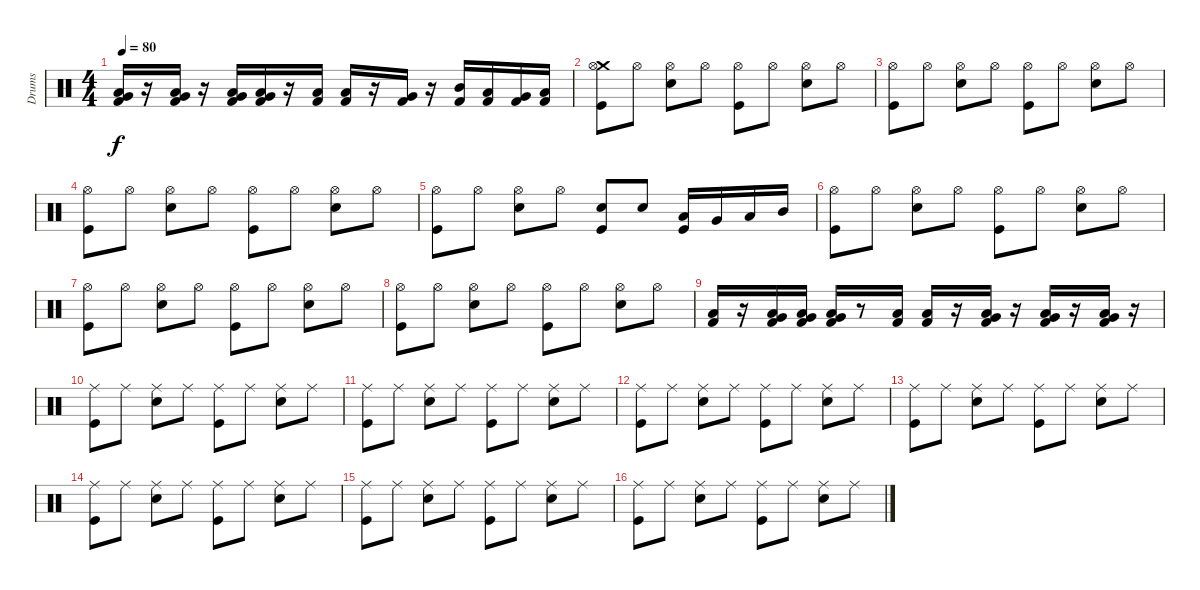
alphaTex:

\track ("Drums" "Drums") {instrument percussion}
\staff {score}
\articulation defaults
\ts (4 4)
\tempo 80
\clef neutral
\ks c
("Very Low Tom (hit)" "Low Floor Tom (hit)" "Kick (hit) 2").16{dy f} r.16 ("Low Tom (hit)" "Very Low Tom (hit)" "Kick (hit) 2").16 r.16 ("Very Low Tom (hit)" "Low Tom (hit)" "Kick (hit) 2").16 ("Low Tom (hit)" "Very Low Tom (hit)" "Kick (hit) 2").16 r.16 ("Low Floor Tom (hit)" "Kick (hit) 2").16 ("Low Floor Tom (hit)" "Kick (hit) 2").16 r.16 ("Very Low Tom (hit)" "Kick (hit) 2").16 r.16 ("Mid Tom (hit)" "Kick (hit) 2").16 ("Low Tom (hit)" "Kick (hit) 2").16 ("Very Low Tom (hit)" "Kick (hit) 2").16 ("Low Floor Tom (hit)" "Kick (hit) 2").16 |
("Crash medium (hit)" "Hi-Hat (open)" "Kick (hit)").8 "Hi-Hat (open)".8 ("Snare (hit) 2" "Hi-Hat (open)").8 "Hi-Hat (open)".8 ("Hi-Hat (open)" "Kick (hit)").8 "Hi-Hat (open)".8 ("Snare (hit) 2" "Hi-Hat (open)").8 "Hi-Hat (open)".8 |
("Hi-Hat (open)" "Kick (hit)").8 "Hi-Hat (open)".8 ("Snare (hit) 2" "Hi-Hat (open)").8 "Hi-Hat (open)".8 ("Hi-Hat (open)" "Kick (hit)").8 "Hi-Hat (open)".8 ("Snare (hit) 2" "Hi-Hat (open)").8 "Hi-Hat (open)".8 |
("Hi-Hat (open)" "Kick (hit)").8 "Hi-Hat (open)".8 ("Snare (hit) 2" "Hi-Hat (open)").8 "Hi-Hat (open)".8 ("Hi-Hat (open)" "Kick (hit)").8 "Hi-Hat (open)".8 ("Snare (hit) 2" "Hi-Hat (open)").8 "Hi-Hat (open)".8 |
("Hi-Hat (open)" "Kick (hit)").8 "Hi-Hat (open)".8 ("Snare (hit) 2" "Hi-Hat (open)").8 "Hi-Hat (open)".8 ("Electric Snare (hit)" "Kick (hit)").8 "Electric Snare (hit)".8 ("Kick (hit)" "Low Floor Tom (hit)").16 "Very Low Tom (hit)".16 "Low Tom (hit)".16 "Mid Tom (hit)".16 |
("Hi-Hat (open)" "Kick (hit)").8 "Hi-Hat (open)".8 ("Snare (hit) 2" "Hi-Hat (open)").8 "Hi-Hat (open)".8 ("Hi-Hat (open)" "Kick (hit)").8 "Hi-Hat (open)".8 ("Snare (hit) 2" "Hi-Hat (open)").8 "Hi-Hat (open)".8 |
("Hi-Hat (open)" "Kick (hit)").8 "Hi-Hat (open)".8 ("Snare (hit) 2" "Hi-Hat (open)").8 "Hi-Hat (open)".8 ("Hi-Hat (open)" "Kick (hit)").8 "Hi-Hat (open)".8 ("Snare (hit) 2" "Hi-Hat (open)").8 "Hi-Hat (open)".8 |
("Hi-Hat (open)" "Kick (hit)").8 "Hi-Hat (open)".8 ("Snare (hit) 2" "Hi-Hat (open)").8 "Hi-Hat (open)".8 ("Hi-Hat (open)" "Kick (hit)").8 "Hi-Hat (open)".8 ("Snare (hit) 2" "Hi-Hat (open)").8 "Hi-Hat (open)".8 |
("Low Floor Tom (hit)" "Kick (hit) 2").16 r.16 ("Very Low Tom (hit)" "Low Floor Tom (hit)" "Kick (hit) 2").16 ("Very Low Tom (hit)" "Low Floor Tom (hit)" "Kick (hit) 2").16 ("Very Low Tom (hit)" "Low Floor Tom (hit)" "Kick (hit) 2").16 r.8 ("Low Floor Tom (hit)" "Kick (hit) 2").16 ("Low Floor Tom (hit)" "Kick (hit) 2").16 r.16 ("Very Low Tom (hit)" "Low Floor Tom (hit)" "Kick (hit) 2").16 r.16 ("Low Tom (hit)" "Very Low Tom (hit)" "Kick (hit) 2").16 r.16 ("Low Tom (hit)" "Very Low Tom (hit)" "Kick (hit) 2").16 r.16 |
("Ride (middle)" "Kick (hit)").8 "Ride (middle)".8 ("Ride (middle)" "Snare (hit) 2").8 "Ride (middle)".8 ("Ride (middle)" "Kick (hit)").8 "Ride (middle)".8 ("Ride (middle)" "Snare (hit) 2").8 "Ride (middle)".8 |
("Ride (middle)" "Kick (hit)").8 "Ride (middle)".8 ("Ride (middle)" "Snare (hit) 2").8 "Ride (middle)".8 ("Ride (middle)" "Kick (hit)").8 "Ride (middle)".8 ("Ride (middle)" "Snare (hit) 2").8 "Ride (middle)".8 |
("Ride (middle)" "Kick (hit)").8 "Ride (middle)".8 ("Ride (middle)" "Snare (hit) 2").8 "Ride (middle)".8 ("Ride (middle)" "Kick (hit)").8 "Ride (middle)".8 ("Ride (middle)" "Snare (hit) 2").8 "Ride (middle)".8 |
("Ride (middle)" "Kick (hit)").8 "Ride (middle)".8 ("Ride (middle)" "Snare (hit) 2").8 "Ride (middle)".8 ("Ride (middle)" "Kick (hit)").8 "Ride (middle)".8 ("Ride (middle)" "Snare (hit) 2").8 "Ride (middle)".8 |
("Ride (middle)" "Kick (hit)").8 "Ride (middle)".8 ("Ride (middle)" "Snare (hit) 2").8 "Ride (middle)".8 ("Ride (middle)" "Kick (hit)").8 "Ride (middle)".8 ("Ride (middle)" "Snare (hit) 2").8 "Ride (middle)".8 |
("Ride (middle)" "Kick (hit)").8 "Ride (middle)".8 ("Ride (middle)" "Snare (hit) 2").8 "Ride (middle)".8 ("Ride (middle)" "Kick (hit)").8 "Ride (middle)".8 ("Ride (middle)" "Snare (hit) 2").8 "Ride (middle)".8 |
("Ride (middle)" "Kick (hit)").8 "Ride (middle)".8 ("Ride (middle)" "Snare (hit) 2").8 "Ride (middle)".8 ("Ride (middle)" "Kick (hit)").8 "Ride (middle)".8 ("Ride (middle)" "Snare (hit) 2").8 "Ride (middle)".8
